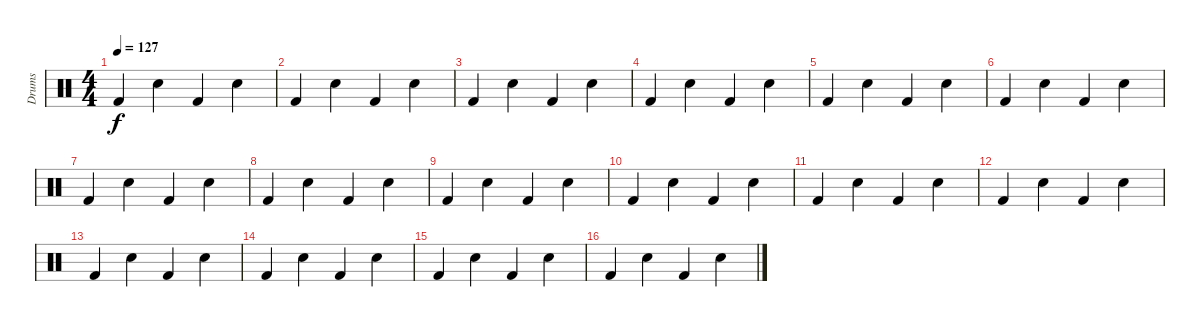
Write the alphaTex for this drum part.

\track ("Drums" "Drums") {instrument percussion}
\staff {score}
\articulation defaults
\ts (4 4)
\tempo 127
\clef neutral
\ks c "Kick (hit) 2".4{dy f} "Electric Snare (hit)".4 "Kick (hit) 2".4 "Electric Snare (hit)".4
|
"Kick (hit) 2".4 "Electric Snare (hit)".4 "Kick (hit) 2".4 "Electric Snare (hit)".4 |
"Kick (hit) 2".4 "Electric Snare (hit)".4 "Kick (hit) 2".4 "Electric Snare (hit)".4 |
"Kick (hit) 2".4 "Electric Snare (hit)".4 "Kick (hit) 2".4 "Electric Snare (hit)".4 |
"Kick (hit) 2".4 "Electric Snare (hit)".4 "Kick (hit) 2".4 "Electric Snare (hit)".4 |
"Kick (hit) 2".4 "Electric Snare (hit)".4 "Kick (hit) 2".4 "Electric Snare (hit)".4 |
"Kick (hit) 2".4 "Electric Snare (hit)".4 "Kick (hit) 2".4 "Electric Snare (hit)".4 |
"Kick (hit) 2".4 "Electric Snare (hit)".4 "Kick (hit) 2".4 "Electric Snare (hit)".4 |
"Kick (hit) 2".4 "Electric Snare (hit)".4 "Kick (hit) 2".4 "Electric Snare (hit)".4 |
"Kick (hit) 2".4 "Electric Snare (hit)".4 "Kick (hit) 2".4 "Electric Snare (hit)".4 |
"Kick (hit) 2".4 "Electric Snare (hit)".4 "Kick (hit) 2".4 "Electric Snare (hit)".4 |
"Kick (hit) 2".4 "Electric Snare (hit)".4 "Kick (hit) 2".4 "Electric Snare (hit)".4 |
"Kick (hit) 2".4 "Electric Snare (hit)".4 "Kick (hit) 2".4 "Electric Snare (hit)".4 |
"Kick (hit) 2".4 "Electric Snare (hit)".4 "Kick (hit) 2".4 "Electric Snare (hit)".4 |
"Kick (hit) 2".4 "Electric Snare (hit)".4 "Kick (hit) 2".4 "Electric Snare (hit)".4 |
"Kick (hit) 2".4 "Electric Snare (hit)".4 "Kick (hit) 2".4 "Electric Snare (hit)".4
